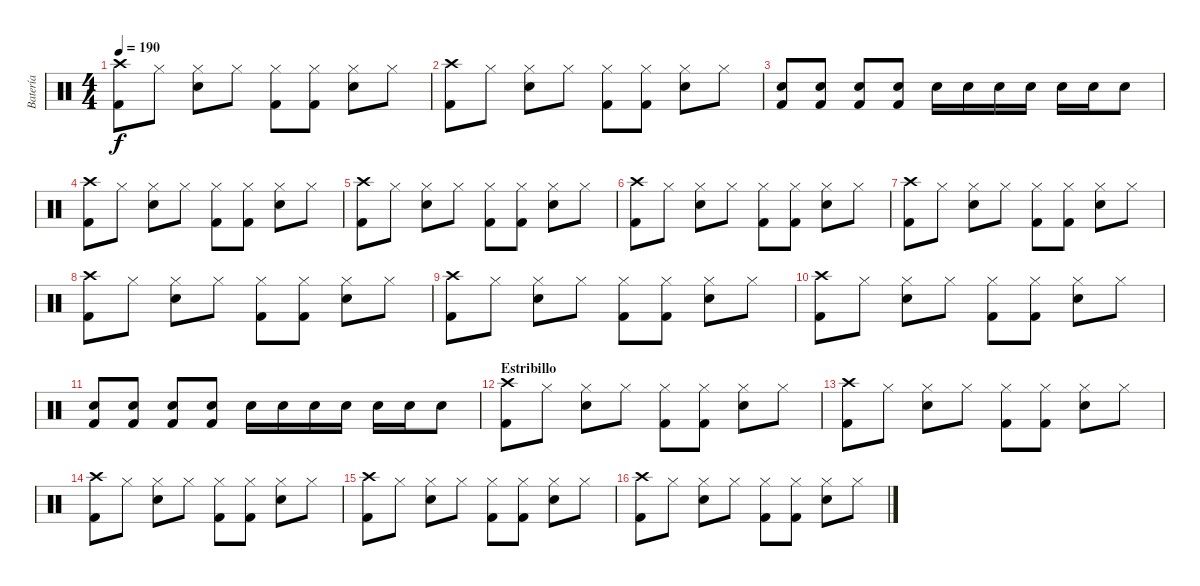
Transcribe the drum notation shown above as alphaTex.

\track ("Batería" "Batería") {instrument percussion}
\staff {score}
\articulation defaults
\ts (4 4)
\tempo 190
\clef neutral
\ks c
("Crash high (hit)" "Kick (hit) 2").8{dy f} "Hi-Hat (closed)".8 ("Hi-Hat (closed)" "Snare (hit) 2").8 "Hi-Hat (closed)".8 ("Hi-Hat (closed)" "Kick (hit) 2").8 ("Hi-Hat (closed)" "Kick (hit) 2").8 ("Hi-Hat (closed)" "Snare (hit) 2").8 "Hi-Hat (closed)".8 |
("Crash high (hit)" "Kick (hit) 2").8 "Hi-Hat (closed)".8 ("Hi-Hat (closed)" "Snare (hit) 2").8 "Hi-Hat (closed)".8 ("Hi-Hat (closed)" "Kick (hit) 2").8 ("Hi-Hat (closed)" "Kick (hit) 2").8 ("Hi-Hat (closed)" "Snare (hit) 2").8 "Hi-Hat (closed)".8 |
("Snare (hit) 2" "Kick (hit) 2").8 ("Snare (hit) 2" "Kick (hit) 2").8 ("Snare (hit) 2" "Kick (hit) 2").8 ("Snare (hit) 2" "Kick (hit) 2").8 "Snare (hit) 2".16 "Snare (hit) 2".16 "Snare (hit) 2".16 "Snare (hit) 2".16 "Snare (hit) 2".16 "Snare (hit) 2".16 "Snare (hit) 2".8 |
("Crash high (hit)" "Kick (hit) 2").8 "Hi-Hat (closed)".8 ("Hi-Hat (closed)" "Snare (hit) 2").8 "Hi-Hat (closed)".8 ("Hi-Hat (closed)" "Kick (hit) 2").8 ("Hi-Hat (closed)" "Kick (hit) 2").8 ("Hi-Hat (closed)" "Snare (hit) 2").8 "Hi-Hat (closed)".8 |
("Crash high (hit)" "Kick (hit) 2").8 "Hi-Hat (closed)".8 ("Hi-Hat (closed)" "Snare (hit) 2").8 "Hi-Hat (closed)".8 ("Hi-Hat (closed)" "Kick (hit) 2").8 ("Hi-Hat (closed)" "Kick (hit) 2").8 ("Hi-Hat (closed)" "Snare (hit) 2").8 "Hi-Hat (closed)".8 |
("Crash high (hit)" "Kick (hit) 2").8 "Hi-Hat (closed)".8 ("Hi-Hat (closed)" "Snare (hit) 2").8 "Hi-Hat (closed)".8 ("Hi-Hat (closed)" "Kick (hit) 2").8 ("Hi-Hat (closed)" "Kick (hit) 2").8 ("Hi-Hat (closed)" "Snare (hit) 2").8 "Hi-Hat (closed)".8 |
("Crash high (hit)" "Kick (hit) 2").8 "Hi-Hat (closed)".8 ("Hi-Hat (closed)" "Snare (hit) 2").8 "Hi-Hat (closed)".8 ("Hi-Hat (closed)" "Kick (hit) 2").8 ("Hi-Hat (closed)" "Kick (hit) 2").8 ("Hi-Hat (closed)" "Snare (hit) 2").8 "Hi-Hat (closed)".8 |
("Crash high (hit)" "Kick (hit) 2").8 "Hi-Hat (closed)".8 ("Hi-Hat (closed)" "Snare (hit) 2").8 "Hi-Hat (closed)".8 ("Hi-Hat (closed)" "Kick (hit) 2").8 ("Hi-Hat (closed)" "Kick (hit) 2").8 ("Hi-Hat (closed)" "Snare (hit) 2").8 "Hi-Hat (closed)".8 |
("Crash high (hit)" "Kick (hit) 2").8 "Hi-Hat (closed)".8 ("Hi-Hat (closed)" "Snare (hit) 2").8 "Hi-Hat (closed)".8 ("Hi-Hat (closed)" "Kick (hit) 2").8 ("Hi-Hat (closed)" "Kick (hit) 2").8 ("Hi-Hat (closed)" "Snare (hit) 2").8 "Hi-Hat (closed)".8 |
("Crash high (hit)" "Kick (hit) 2").8 "Hi-Hat (closed)".8 ("Hi-Hat (closed)" "Snare (hit) 2").8 "Hi-Hat (closed)".8 ("Hi-Hat (closed)" "Kick (hit) 2").8 ("Hi-Hat (closed)" "Kick (hit) 2").8 ("Hi-Hat (closed)" "Snare (hit) 2").8 "Hi-Hat (closed)".8 |
("Snare (hit) 2" "Kick (hit) 2").8 ("Snare (hit) 2" "Kick (hit) 2").8 ("Snare (hit) 2" "Kick (hit) 2").8 ("Snare (hit) 2" "Kick (hit) 2").8 "Snare (hit) 2".16 "Snare (hit) 2".16 "Snare (hit) 2".16 "Snare (hit) 2".16 "Snare (hit) 2".16 "Snare (hit) 2".16 "Snare (hit) 2".8 |
\section ("" "Estribillo")
("Crash high (hit)" "Kick (hit) 2").8 "Hi-Hat (closed)".8 ("Hi-Hat (closed)" "Snare (hit) 2").8 "Hi-Hat (closed)".8 ("Hi-Hat (closed)" "Kick (hit) 2").8 ("Hi-Hat (closed)" "Kick (hit) 2").8 ("Hi-Hat (closed)" "Snare (hit) 2").8 "Hi-Hat (closed)".8 |
("Crash high (hit)" "Kick (hit) 2").8 "Hi-Hat (closed)".8 ("Hi-Hat (closed)" "Snare (hit) 2").8 "Hi-Hat (closed)".8 ("Hi-Hat (closed)" "Kick (hit) 2").8 ("Hi-Hat (closed)" "Kick (hit) 2").8 ("Hi-Hat (closed)" "Snare (hit) 2").8 "Hi-Hat (closed)".8 |
("Crash high (hit)" "Kick (hit) 2").8 "Hi-Hat (closed)".8 ("Hi-Hat (closed)" "Snare (hit) 2").8 "Hi-Hat (closed)".8 ("Hi-Hat (closed)" "Kick (hit) 2").8 ("Hi-Hat (closed)" "Kick (hit) 2").8 ("Hi-Hat (closed)" "Snare (hit) 2").8 "Hi-Hat (closed)".8 |
("Crash high (hit)" "Kick (hit) 2").8 "Hi-Hat (closed)".8 ("Hi-Hat (closed)" "Snare (hit) 2").8 "Hi-Hat (closed)".8 ("Hi-Hat (closed)" "Kick (hit) 2").8 ("Hi-Hat (closed)" "Kick (hit) 2").8 ("Hi-Hat (closed)" "Snare (hit) 2").8 "Hi-Hat (closed)".8 |
("Crash high (hit)" "Kick (hit) 2").8 "Hi-Hat (closed)".8 ("Hi-Hat (closed)" "Snare (hit) 2").8 "Hi-Hat (closed)".8 ("Hi-Hat (closed)" "Kick (hit) 2").8 ("Hi-Hat (closed)" "Kick (hit) 2").8 ("Hi-Hat (closed)" "Snare (hit) 2").8 "Hi-Hat (closed)".8
